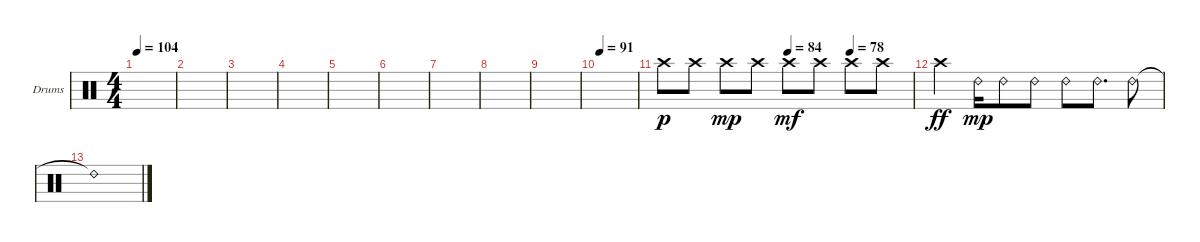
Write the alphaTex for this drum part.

\defaultSystemsLayout 4
\bracketExtendMode groupsimilarinstruments
\firstSystemTrackNameOrientation horizontal
\otherSystemsTrackNameOrientation horizontal
\track ("Jimmy \"The Hammer\" - Drums" "Drums") {instrument percussion}
\staff {score}
\articulation defaults
\ts (4 4)
\tempo 104
\clef neutral
\ks c
|
|
|
|
|
|
|
|
|
\tempo (91 0.0125)
|
\tempo (84 0.5)
\tempo (78 0.75)
"Crash high (hit)".8{dy p} "Crash high (hit)".8 "Crash high (hit)".8{dy mp} "Crash high (hit)".8 "Crash high (hit)".8{dy mf} "Crash high (hit)".8 "Crash high (hit)".8 "Crash high (hit)".8 |
"Crash high (hit)".4{dy ff} "Ride (bell) 2".16{dy mp} "Ride (bell) 2".8 "Ride (bell) 2".8 "Ride (bell) 2".8 "Ride (bell) 2".8{d} "Ride (bell) 2".8 |
"Ride (bell) 2"{t}.1
